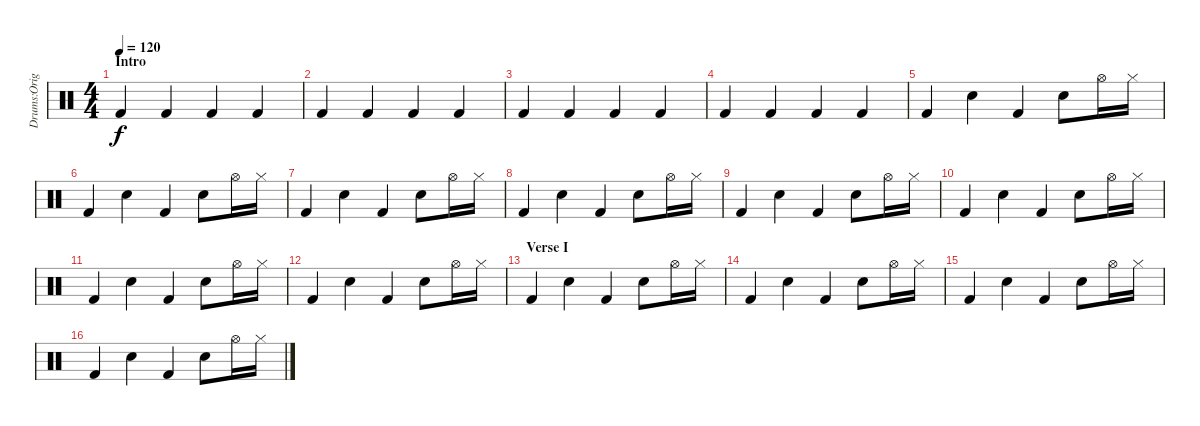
\track ("Drums:Original" "Drums:Orig") {instrument percussion}
\staff {score}
\articulation defaults
\ts (4 4)
\section ("" "Intro")
\tempo 120
\clef neutral
\ks c "Kick (hit) 2".4{dy f} "Kick (hit) 2".4 "Kick (hit) 2".4 "Kick (hit) 2".4
|
"Kick (hit) 2".4 "Kick (hit) 2".4 "Kick (hit) 2".4 "Kick (hit) 2".4 |
"Kick (hit) 2".4 "Kick (hit) 2".4 "Kick (hit) 2".4 "Kick (hit) 2".4 |
"Kick (hit) 2".4 "Kick (hit) 2".4 "Kick (hit) 2".4 "Kick (hit) 2".4 |
"Kick (hit) 2".4 "Snare (hit) 2".4 "Kick (hit) 2".4 "Snare (hit) 2".8 "Hi-Hat (open)".16 "Hi-Hat (closed)".16 |
"Kick (hit) 2".4 "Snare (hit) 2".4 "Kick (hit) 2".4 "Snare (hit) 2".8 "Hi-Hat (open)".16 "Hi-Hat (closed)".16 |
"Kick (hit) 2".4 "Snare (hit) 2".4 "Kick (hit) 2".4 "Snare (hit) 2".8 "Hi-Hat (open)".16 "Hi-Hat (closed)".16 |
"Kick (hit) 2".4 "Snare (hit) 2".4 "Kick (hit) 2".4 "Snare (hit) 2".8 "Hi-Hat (open)".16 "Hi-Hat (closed)".16 |
"Kick (hit) 2".4 "Snare (hit) 2".4 "Kick (hit) 2".4 "Snare (hit) 2".8 "Hi-Hat (open)".16 "Hi-Hat (closed)".16 |
"Kick (hit) 2".4 "Snare (hit) 2".4 "Kick (hit) 2".4 "Snare (hit) 2".8 "Hi-Hat (open)".16 "Hi-Hat (closed)".16 |
"Kick (hit) 2".4 "Snare (hit) 2".4 "Kick (hit) 2".4 "Snare (hit) 2".8 "Hi-Hat (open)".16 "Hi-Hat (closed)".16 |
"Kick (hit) 2".4 "Snare (hit) 2".4 "Kick (hit) 2".4 "Snare (hit) 2".8 "Hi-Hat (open)".16 "Hi-Hat (closed)".16 |
\section ("" "Verse I")
"Kick (hit) 2".4 "Snare (hit) 2".4 "Kick (hit) 2".4 "Snare (hit) 2".8 "Hi-Hat (open)".16 "Hi-Hat (closed)".16 |
"Kick (hit) 2".4 "Snare (hit) 2".4 "Kick (hit) 2".4 "Snare (hit) 2".8 "Hi-Hat (open)".16 "Hi-Hat (closed)".16 |
"Kick (hit) 2".4 "Snare (hit) 2".4 "Kick (hit) 2".4 "Snare (hit) 2".8 "Hi-Hat (open)".16 "Hi-Hat (closed)".16 |
"Kick (hit) 2".4 "Snare (hit) 2".4 "Kick (hit) 2".4 "Snare (hit) 2".8 "Hi-Hat (open)".16 "Hi-Hat (closed)".16
